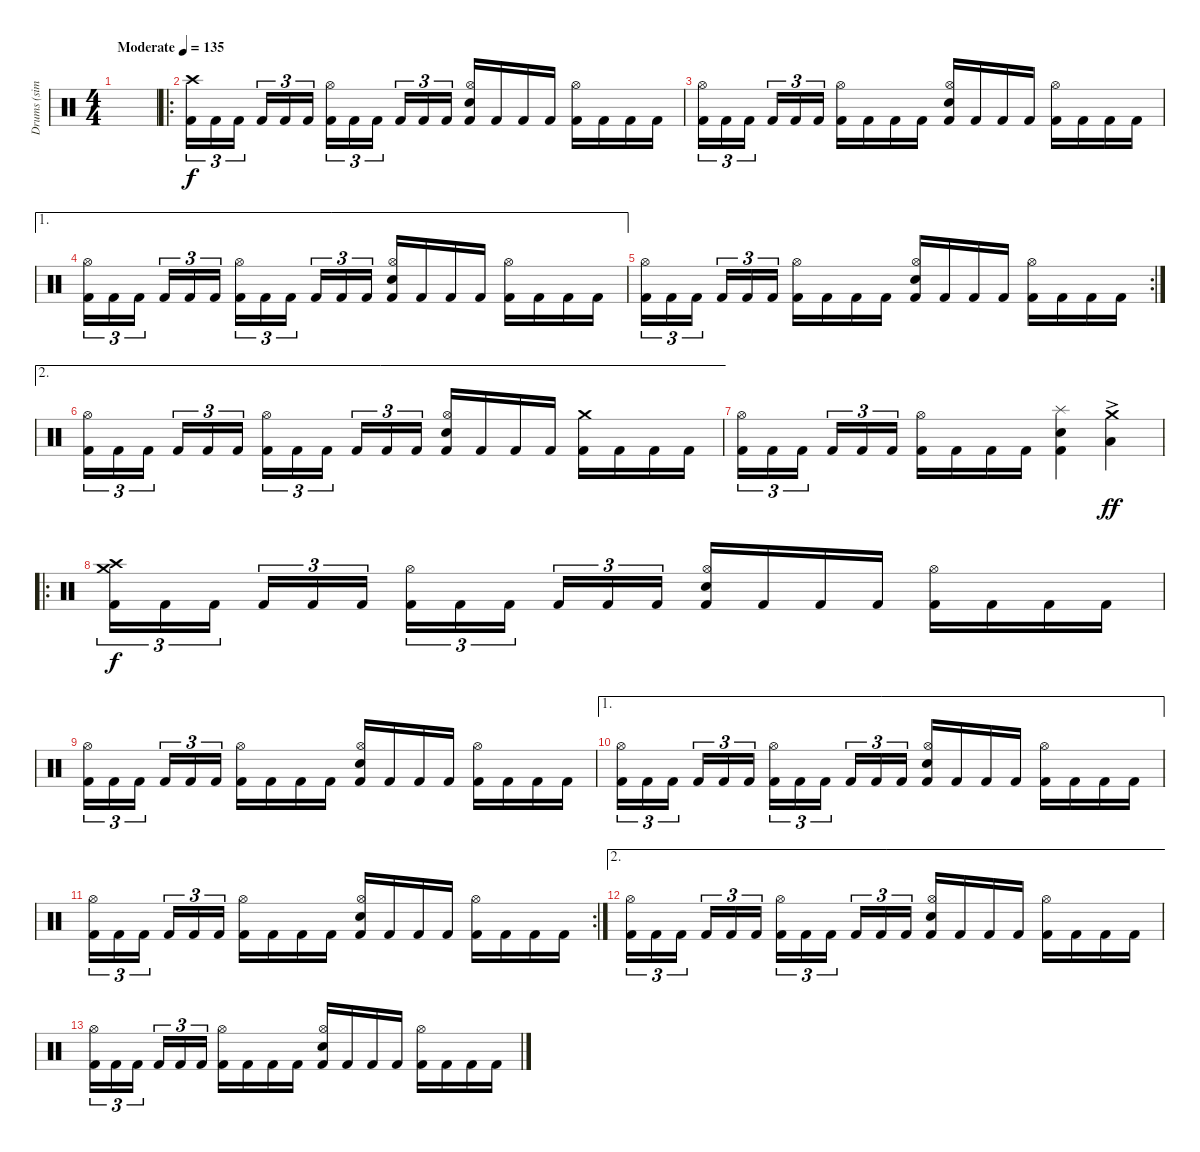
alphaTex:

\track ("Drums (simplified)" "Drums (sim") {instrument percussion}
\staff {score}
\articulation defaults
\ts (4 4)
\tempo (135 "Moderate")
\clef neutral
\ks c
|
\ro
("Crash high (hit)" "Kick (hit) 2").16{tu (3 2)} "Kick (hit) 2".16{tu (3 2)} "Kick (hit) 2".16{tu (3 2) beam splitsecondary} "Kick (hit) 2".16{tu (3 2)} "Kick (hit) 2".16{tu (3 2)} "Kick (hit) 2".16{tu (3 2)} ("Hi-Hat (open)" "Kick (hit) 2").16{tu (3 2)} "Kick (hit) 2".16{tu (3 2)} "Kick (hit) 2".16{tu (3 2) beam splitsecondary} "Kick (hit) 2".16{tu (3 2)} "Kick (hit) 2".16{tu (3 2)} "Kick (hit) 2".16{tu (3 2)} ("Hi-Hat (open)" "Electric Snare (hit)" "Kick (hit) 2").16 "Kick (hit) 2".16 "Kick (hit) 2".16 "Kick (hit) 2".16 ("Hi-Hat (open)" "Kick (hit) 2").16 "Kick (hit) 2".16 "Kick (hit) 2".16 "Kick (hit) 2".16 |
("Hi-Hat (open)" "Kick (hit) 2").16{tu (3 2)} "Kick (hit) 2".16{tu (3 2)} "Kick (hit) 2".16{tu (3 2) beam splitsecondary} "Kick (hit) 2".16{tu (3 2)} "Kick (hit) 2".16{tu (3 2)} "Kick (hit) 2".16{tu (3 2)} ("Hi-Hat (open)" "Kick (hit) 2").16 "Kick (hit) 2".16 "Kick (hit) 2".16 "Kick (hit) 2".16 ("Hi-Hat (open)" "Electric Snare (hit)" "Kick (hit) 2").16 "Kick (hit) 2".16 "Kick (hit) 2".16 "Kick (hit) 2".16 ("Hi-Hat (open)" "Kick (hit) 2").16 "Kick (hit) 2".16 "Kick (hit) 2".16 "Kick (hit) 2".16 |
\ae 1
("Hi-Hat (open)" "Kick (hit) 2").16{tu (3 2)} "Kick (hit) 2".16{tu (3 2)} "Kick (hit) 2".16{tu (3 2) beam splitsecondary} "Kick (hit) 2".16{tu (3 2)} "Kick (hit) 2".16{tu (3 2)} "Kick (hit) 2".16{tu (3 2)} ("Hi-Hat (open)" "Kick (hit) 2").16{tu (3 2)} "Kick (hit) 2".16{tu (3 2)} "Kick (hit) 2".16{tu (3 2) beam splitsecondary} "Kick (hit) 2".16{tu (3 2)} "Kick (hit) 2".16{tu (3 2)} "Kick (hit) 2".16{tu (3 2)} ("Hi-Hat (open)" "Electric Snare (hit)" "Kick (hit) 2").16 "Kick (hit) 2".16 "Kick (hit) 2".16 "Kick (hit) 2".16 ("Hi-Hat (open)" "Kick (hit) 2").16 "Kick (hit) 2".16 "Kick (hit) 2".16 "Kick (hit) 2".16 |
\rc 2
("Hi-Hat (open)" "Kick (hit) 2").16{tu (3 2)} "Kick (hit) 2".16{tu (3 2)} "Kick (hit) 2".16{tu (3 2) beam splitsecondary} "Kick (hit) 2".16{tu (3 2)} "Kick (hit) 2".16{tu (3 2)} "Kick (hit) 2".16{tu (3 2)} ("Hi-Hat (open)" "Kick (hit) 2").16 "Kick (hit) 2".16 "Kick (hit) 2".16 "Kick (hit) 2".16 ("Hi-Hat (open)" "Electric Snare (hit)" "Kick (hit) 2").16 "Kick (hit) 2".16 "Kick (hit) 2".16 "Kick (hit) 2".16 ("Hi-Hat (open)" "Kick (hit) 2").16 "Kick (hit) 2".16 "Kick (hit) 2".16 "Kick (hit) 2".16 |
\ae 2
("Hi-Hat (open)" "Kick (hit) 2").16{tu (3 2)} "Kick (hit) 2".16{tu (3 2)} "Kick (hit) 2".16{tu (3 2) beam splitsecondary} "Kick (hit) 2".16{tu (3 2)} "Kick (hit) 2".16{tu (3 2)} "Kick (hit) 2".16{tu (3 2)} ("Hi-Hat (open)" "Kick (hit) 2").16{tu (3 2)} "Kick (hit) 2".16{tu (3 2)} "Kick (hit) 2".16{tu (3 2) beam splitsecondary} "Kick (hit) 2".16{tu (3 2)} "Kick (hit) 2".16{tu (3 2)} "Kick (hit) 2".16{tu (3 2)} ("Hi-Hat (open)" "Electric Snare (hit)" "Kick (hit) 2").16 "Kick (hit) 2".16 "Kick (hit) 2".16 "Kick (hit) 2".16 ("Crash medium (hit)" "Kick (hit) 2").16 "Kick (hit) 2".16 "Kick (hit) 2".16 "Kick (hit) 2".16 |
("Hi-Hat (open)" "Kick (hit) 2").16{tu (3 2)} "Kick (hit) 2".16{tu (3 2)} "Kick (hit) 2".16{tu (3 2) beam splitsecondary} "Kick (hit) 2".16{tu (3 2)} "Kick (hit) 2".16{tu (3 2)} "Kick (hit) 2".16{tu (3 2)} ("Hi-Hat (open)" "Kick (hit) 2").16 "Kick (hit) 2".16 "Kick (hit) 2".16 "Kick (hit) 2".16 ("Splash (hit)" "Electric Snare (hit)" "Kick (hit) 2").4 ("Crash medium (hit)" "Low Tom (hit)"{ac}).4{dy ff} |
\ro
("Crash medium (hit)" "Crash high (hit)" "Kick (hit) 2").16{tu (3 2) dy f} "Kick (hit) 2".16{tu (3 2)} "Kick (hit) 2".16{tu (3 2) beam splitsecondary} "Kick (hit) 2".16{tu (3 2)} "Kick (hit) 2".16{tu (3 2)} "Kick (hit) 2".16{tu (3 2)} ("Hi-Hat (open)" "Kick (hit) 2").16{tu (3 2)} "Kick (hit) 2".16{tu (3 2)} "Kick (hit) 2".16{tu (3 2) beam splitsecondary} "Kick (hit) 2".16{tu (3 2)} "Kick (hit) 2".16{tu (3 2)} "Kick (hit) 2".16{tu (3 2)} ("Hi-Hat (open)" "Electric Snare (hit)" "Kick (hit) 2").16 "Kick (hit) 2".16 "Kick (hit) 2".16 "Kick (hit) 2".16 ("Hi-Hat (open)" "Kick (hit) 2").16 "Kick (hit) 2".16 "Kick (hit) 2".16 "Kick (hit) 2".16 |
("Hi-Hat (open)" "Kick (hit) 2").16{tu (3 2)} "Kick (hit) 2".16{tu (3 2)} "Kick (hit) 2".16{tu (3 2) beam splitsecondary} "Kick (hit) 2".16{tu (3 2)} "Kick (hit) 2".16{tu (3 2)} "Kick (hit) 2".16{tu (3 2)} ("Hi-Hat (open)" "Kick (hit) 2").16 "Kick (hit) 2".16 "Kick (hit) 2".16 "Kick (hit) 2".16 ("Hi-Hat (open)" "Electric Snare (hit)" "Kick (hit) 2").16 "Kick (hit) 2".16 "Kick (hit) 2".16 "Kick (hit) 2".16 ("Hi-Hat (open)" "Kick (hit) 2").16 "Kick (hit) 2".16 "Kick (hit) 2".16 "Kick (hit) 2".16 |
\ae 1
("Hi-Hat (open)" "Kick (hit) 2").16{tu (3 2)} "Kick (hit) 2".16{tu (3 2)} "Kick (hit) 2".16{tu (3 2) beam splitsecondary} "Kick (hit) 2".16{tu (3 2)} "Kick (hit) 2".16{tu (3 2)} "Kick (hit) 2".16{tu (3 2)} ("Hi-Hat (open)" "Kick (hit) 2").16{tu (3 2)} "Kick (hit) 2".16{tu (3 2)} "Kick (hit) 2".16{tu (3 2) beam splitsecondary} "Kick (hit) 2".16{tu (3 2)} "Kick (hit) 2".16{tu (3 2)} "Kick (hit) 2".16{tu (3 2)} ("Hi-Hat (open)" "Electric Snare (hit)" "Kick (hit) 2").16 "Kick (hit) 2".16 "Kick (hit) 2".16 "Kick (hit) 2".16 ("Hi-Hat (open)" "Kick (hit) 2").16 "Kick (hit) 2".16 "Kick (hit) 2".16 "Kick (hit) 2".16 |
\rc 2
("Hi-Hat (open)" "Kick (hit) 2").16{tu (3 2)} "Kick (hit) 2".16{tu (3 2)} "Kick (hit) 2".16{tu (3 2) beam splitsecondary} "Kick (hit) 2".16{tu (3 2)} "Kick (hit) 2".16{tu (3 2)} "Kick (hit) 2".16{tu (3 2)} ("Hi-Hat (open)" "Kick (hit) 2").16 "Kick (hit) 2".16 "Kick (hit) 2".16 "Kick (hit) 2".16 ("Hi-Hat (open)" "Electric Snare (hit)" "Kick (hit) 2").16 "Kick (hit) 2".16 "Kick (hit) 2".16 "Kick (hit) 2".16 ("Hi-Hat (open)" "Kick (hit) 2").16 "Kick (hit) 2".16 "Kick (hit) 2".16 "Kick (hit) 2".16 |
\ae 2
("Hi-Hat (open)" "Kick (hit) 2").16{tu (3 2)} "Kick (hit) 2".16{tu (3 2)} "Kick (hit) 2".16{tu (3 2) beam splitsecondary} "Kick (hit) 2".16{tu (3 2)} "Kick (hit) 2".16{tu (3 2)} "Kick (hit) 2".16{tu (3 2)} ("Hi-Hat (open)" "Kick (hit) 2").16{tu (3 2)} "Kick (hit) 2".16{tu (3 2)} "Kick (hit) 2".16{tu (3 2) beam splitsecondary} "Kick (hit) 2".16{tu (3 2)} "Kick (hit) 2".16{tu (3 2)} "Kick (hit) 2".16{tu (3 2)} ("Hi-Hat (open)" "Electric Snare (hit)" "Kick (hit) 2").16 "Kick (hit) 2".16 "Kick (hit) 2".16 "Kick (hit) 2".16 ("Hi-Hat (open)" "Kick (hit) 2").16 "Kick (hit) 2".16 "Kick (hit) 2".16 "Kick (hit) 2".16 |
("Hi-Hat (open)" "Kick (hit) 2").16{tu (3 2)} "Kick (hit) 2".16{tu (3 2)} "Kick (hit) 2".16{tu (3 2) beam splitsecondary} "Kick (hit) 2".16{tu (3 2)} "Kick (hit) 2".16{tu (3 2)} "Kick (hit) 2".16{tu (3 2)} ("Hi-Hat (open)" "Kick (hit) 2").16 "Kick (hit) 2".16 "Kick (hit) 2".16 "Kick (hit) 2".16 ("Hi-Hat (open)" "Electric Snare (hit)" "Kick (hit) 2").16 "Kick (hit) 2".16 "Kick (hit) 2".16 "Kick (hit) 2".16 ("Hi-Hat (open)" "Kick (hit) 2").16 "Kick (hit) 2".16 "Kick (hit) 2".16 "Kick (hit) 2".16
